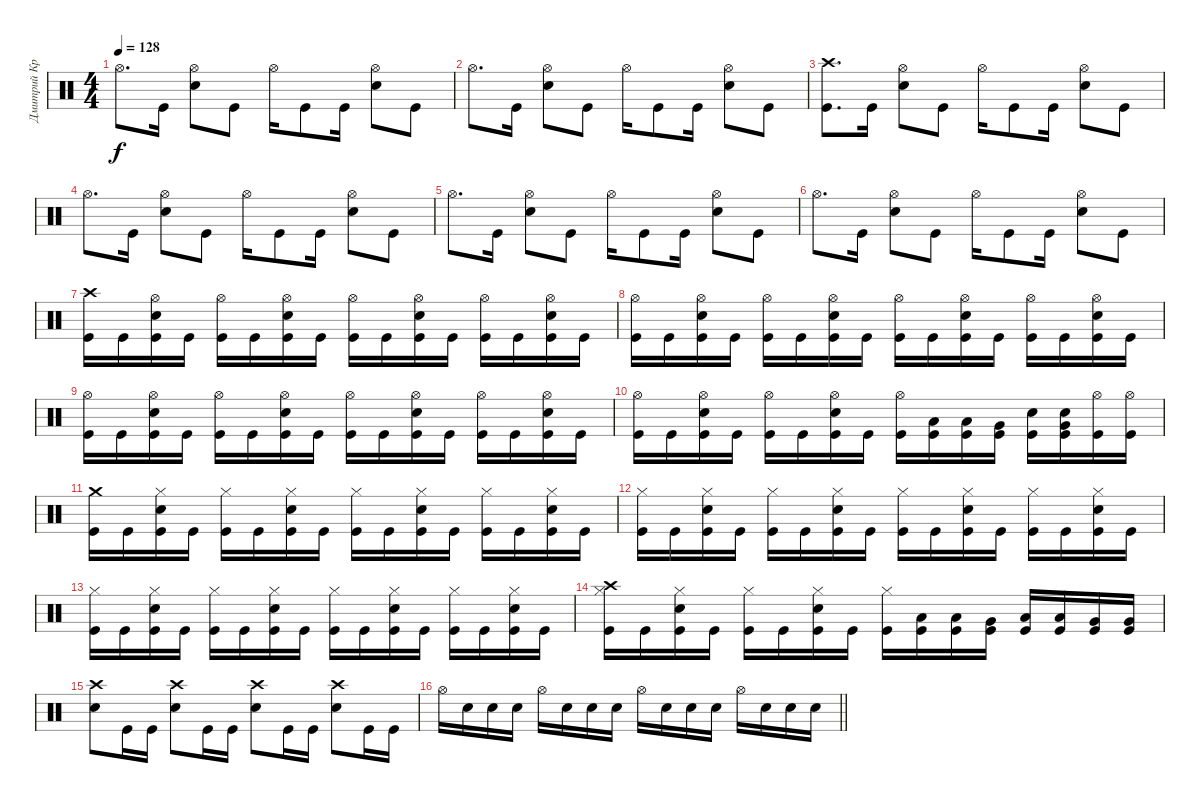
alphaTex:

\track ("Дмитрий Кривенков" "Дмитрий Кр") {instrument percussion}
\staff {score}
\articulation defaults
\ts (4 4)
\tempo 128
\clef neutral
\ks c "Hi-Hat (open)".8{d dy f} "Kick (hit)".16
("Snare (hit) 2" "Hi-Hat (open)").8 "Kick (hit)".8 "Hi-Hat (open)".16 "Kick (hit)".8 "Kick (hit)".16 ("Snare (hit) 2" "Hi-Hat (open)").8 "Kick (hit)".8 |
"Hi-Hat (open)".8{d} "Kick (hit)".16 ("Snare (hit) 2" "Hi-Hat (open)").8 "Kick (hit)".8 "Hi-Hat (open)".16 "Kick (hit)".8 "Kick (hit)".16 ("Snare (hit) 2" "Hi-Hat (open)").8 "Kick (hit)".8 |
("Crash high (hit)" "Kick (hit)").8{d} "Kick (hit)".16 ("Snare (hit) 2" "Hi-Hat (open)").8 "Kick (hit)".8 "Hi-Hat (open)".16 "Kick (hit)".8 "Kick (hit)".16 ("Snare (hit) 2" "Hi-Hat (open)").8 "Kick (hit)".8 |
"Hi-Hat (open)".8{d} "Kick (hit)".16 ("Snare (hit) 2" "Hi-Hat (open)").8 "Kick (hit)".8 "Hi-Hat (open)".16 "Kick (hit)".8 "Kick (hit)".16 ("Snare (hit) 2" "Hi-Hat (open)").8 "Kick (hit)".8 |
"Hi-Hat (open)".8{d} "Kick (hit)".16 ("Snare (hit) 2" "Hi-Hat (open)").8 "Kick (hit)".8 "Hi-Hat (open)".16 "Kick (hit)".8 "Kick (hit)".16 ("Snare (hit) 2" "Hi-Hat (open)").8 "Kick (hit)".8 |
"Hi-Hat (open)".8{d} "Kick (hit)".16 ("Snare (hit) 2" "Hi-Hat (open)").8 "Kick (hit)".8 "Hi-Hat (open)".16 "Kick (hit)".8 "Kick (hit)".16 ("Snare (hit) 2" "Hi-Hat (open)").8 "Kick (hit)".8 |
("Crash high (hit)" "Kick (hit)").16 "Kick (hit)".16 ("Snare (hit) 2" "Hi-Hat (open)" "Kick (hit)").16 "Kick (hit)".16 ("Hi-Hat (open)" "Kick (hit)").16 "Kick (hit)".16 ("Snare (hit) 2" "Hi-Hat (open)" "Kick (hit)").16 "Kick (hit)".16 ("Hi-Hat (open)" "Kick (hit)").16 "Kick (hit)".16 ("Snare (hit) 2" "Hi-Hat (open)" "Kick (hit)").16 "Kick (hit)".16 ("Hi-Hat (open)" "Kick (hit)").16 "Kick (hit)".16 ("Snare (hit) 2" "Hi-Hat (open)" "Kick (hit)").16 "Kick (hit)".16 |
("Hi-Hat (open)" "Kick (hit)").16 "Kick (hit)".16 ("Snare (hit) 2" "Hi-Hat (open)" "Kick (hit)").16 "Kick (hit)".16 ("Hi-Hat (open)" "Kick (hit)").16 "Kick (hit)".16 ("Snare (hit) 2" "Hi-Hat (open)" "Kick (hit)").16 "Kick (hit)".16 ("Hi-Hat (open)" "Kick (hit)").16 "Kick (hit)".16 ("Snare (hit) 2" "Hi-Hat (open)" "Kick (hit)").16 "Kick (hit)".16 ("Hi-Hat (open)" "Kick (hit)").16 "Kick (hit)".16 ("Snare (hit) 2" "Hi-Hat (open)" "Kick (hit)").16 "Kick (hit)".16 |
("Hi-Hat (open)" "Kick (hit)").16 "Kick (hit)".16 ("Snare (hit) 2" "Hi-Hat (open)" "Kick (hit)").16 "Kick (hit)".16 ("Hi-Hat (open)" "Kick (hit)").16 "Kick (hit)".16 ("Snare (hit) 2" "Hi-Hat (open)" "Kick (hit)").16 "Kick (hit)".16 ("Hi-Hat (open)" "Kick (hit)").16 "Kick (hit)".16 ("Snare (hit) 2" "Hi-Hat (open)" "Kick (hit)").16 "Kick (hit)".16 ("Hi-Hat (open)" "Kick (hit)").16 "Kick (hit)".16 ("Snare (hit) 2" "Hi-Hat (open)" "Kick (hit)").16 "Kick (hit)".16 |
("Hi-Hat (open)" "Kick (hit)").16 "Kick (hit)".16 ("Snare (hit) 2" "Hi-Hat (open)" "Kick (hit)").16 "Kick (hit)".16 ("Hi-Hat (open)" "Kick (hit)").16 "Kick (hit)".16 ("Snare (hit) 2" "Hi-Hat (open)" "Kick (hit)").16 "Kick (hit)".16 ("Hi-Hat (open)" "Kick (hit)").16 ("Low Tom (hit)" "Kick (hit)").16 ("Low Tom (hit)" "Kick (hit)").16 ("Very Low Tom (hit)" "Kick (hit)").16 ("Snare (hit) 2" "Kick (hit)").16 ("Snare (hit) 2" "Very Low Tom (hit)" "Kick (hit)").16 ("Hi-Hat (open)" "Kick (hit)").16 ("Hi-Hat (open)" "Kick (hit)").16 |
("Crash medium (hit)" "Kick (hit)").16 "Kick (hit)".16 ("Snare (hit) 2" "Hi-Hat (closed)" "Kick (hit)").16 "Kick (hit)".16 ("Hi-Hat (closed)" "Kick (hit)").16 "Kick (hit)".16 ("Snare (hit) 2" "Hi-Hat (closed)" "Kick (hit)").16 "Kick (hit)".16 ("Hi-Hat (closed)" "Kick (hit)").16 "Kick (hit)".16 ("Snare (hit) 2" "Hi-Hat (closed)" "Kick (hit)").16 "Kick (hit)".16 ("Hi-Hat (closed)" "Kick (hit)").16 "Kick (hit)".16 ("Snare (hit) 2" "Hi-Hat (closed)" "Kick (hit)").16 "Kick (hit)".16 |
("Hi-Hat (closed)" "Kick (hit)").16 "Kick (hit)".16 ("Snare (hit) 2" "Hi-Hat (closed)" "Kick (hit)").16 "Kick (hit)".16 ("Hi-Hat (closed)" "Kick (hit)").16 "Kick (hit)".16 ("Snare (hit) 2" "Hi-Hat (closed)" "Kick (hit)").16 "Kick (hit)".16 ("Hi-Hat (closed)" "Kick (hit)").16 "Kick (hit)".16 ("Snare (hit) 2" "Hi-Hat (closed)" "Kick (hit)").16 "Kick (hit)".16 ("Hi-Hat (closed)" "Kick (hit)").16 "Kick (hit)".16 ("Snare (hit) 2" "Hi-Hat (closed)" "Kick (hit)").16 "Kick (hit)".16 |
("Hi-Hat (closed)" "Kick (hit)").16 "Kick (hit)".16 ("Snare (hit) 2" "Hi-Hat (closed)" "Kick (hit)").16 "Kick (hit)".16 ("Hi-Hat (closed)" "Kick (hit)").16 "Kick (hit)".16 ("Snare (hit) 2" "Hi-Hat (closed)" "Kick (hit)").16 "Kick (hit)".16 ("Hi-Hat (closed)" "Kick (hit)").16 "Kick (hit)".16 ("Snare (hit) 2" "Hi-Hat (closed)" "Kick (hit)").16 "Kick (hit)".16 ("Hi-Hat (closed)" "Kick (hit)").16 "Kick (hit)".16 ("Snare (hit) 2" "Hi-Hat (closed)" "Kick (hit)").16 "Kick (hit)".16 |
("Crash high (hit)" "Hi-Hat (closed)" "Kick (hit)").16 "Kick (hit)".16 ("Snare (hit) 2" "Hi-Hat (closed)" "Kick (hit)").16 "Kick (hit)".16 ("Hi-Hat (closed)" "Kick (hit)").16 "Kick (hit)".16 ("Snare (hit) 2" "Hi-Hat (closed)" "Kick (hit)").16 "Kick (hit)".16 ("Hi-Hat (closed)" "Kick (hit)").16 ("Low Tom (hit)" "Kick (hit)").16 ("Low Tom (hit)" "Kick (hit)").16 ("Very Low Tom (hit)" "Kick (hit)").16 ("Low Tom (hit)" "Kick (hit)").16 ("Low Tom (hit)" "Kick (hit)").16 ("Very Low Tom (hit)" "Kick (hit)").16 ("Very Low Tom (hit)" "Kick (hit)").16 |
("Snare (hit) 2" "Crash high (hit)").8 "Kick (hit)".16 "Kick (hit)".16 ("Snare (hit) 2" "Crash high (hit)").8 "Kick (hit)".16 "Kick (hit)".16 ("Snare (hit) 2" "Crash high (hit)").8 "Kick (hit)".16 "Kick (hit)".16 ("Snare (hit) 2" "Crash high (hit)").8 "Kick (hit)".16 "Kick (hit)".16 |
\barLineRight lightlight "Hi-Hat (open)".16 "Snare (hit) 2".16 "Snare (hit) 2".16 "Snare (hit) 2".16 "Hi-Hat (open)".16 "Snare (hit) 2".16 "Snare (hit) 2".16 "Snare (hit) 2".16 "Hi-Hat (open)".16 "Snare (hit) 2".16 "Snare (hit) 2".16 "Snare (hit) 2".16 "Hi-Hat (open)".16 "Snare (hit) 2".16 "Snare (hit) 2".16 "Snare (hit) 2".16
